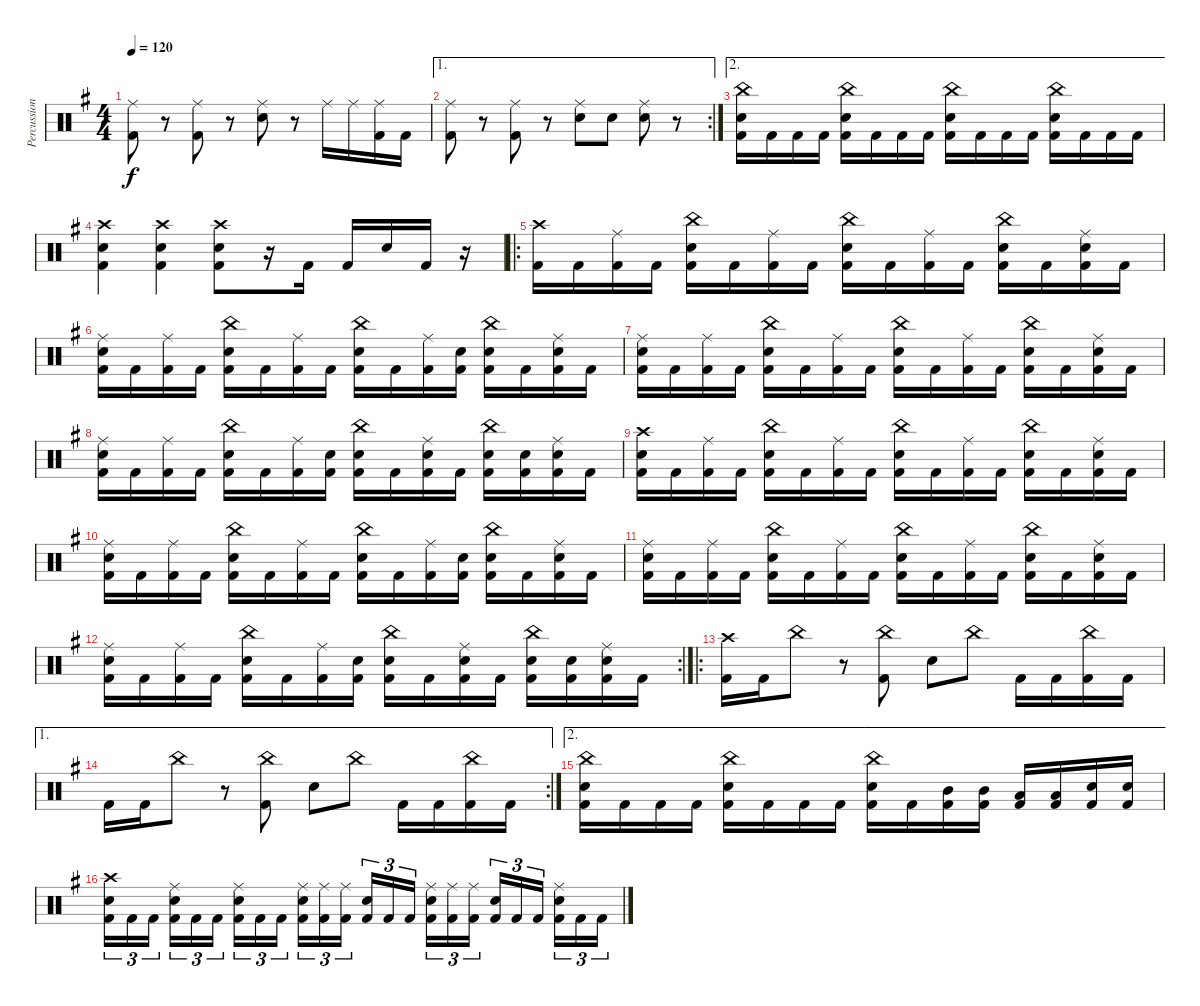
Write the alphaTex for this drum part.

\track ("Percussions" "Percussion") {instrument percussion}
\staff {score}
\articulation defaults
\ts (4 4)
\tempo 120
\clef neutral
\ks g
("Ride (middle)" "Kick (hit) 2").8{dy f} r.8 ("Ride (middle)" "Kick (hit) 2").8 r.8 ("Ride (middle)" "Snare (hit) 2").8 r.8 "Ride (middle)".16 "Ride (middle)".16 ("Ride (middle)" "Kick (hit) 2").16 "Kick (hit) 2".16 |
\ae 1
\rc 2
("Ride (middle)" "Kick (hit) 2").8 r.8 ("Ride (middle)" "Kick (hit) 2").8 r.8 ("Ride (middle)" "Snare (hit) 2").8 "Snare (hit) 2".8 ("Ride (middle)" "Snare (hit) 2").8 r.8 |
\ae 2
("China (hit)" "Snare (hit) 2" "Kick (hit) 2").16 "Kick (hit) 2".16 "Kick (hit) 2".16 "Kick (hit) 2".16 ("China (hit)" "Snare (hit) 2" "Kick (hit) 2").16 "Kick (hit) 2".16 "Kick (hit) 2".16 "Kick (hit) 2".16 ("China (hit)" "Snare (hit) 2" "Kick (hit) 2").16 "Kick (hit) 2".16 "Kick (hit) 2".16 "Kick (hit) 2".16 ("China (hit)" "Snare (hit) 2" "Kick (hit) 2").16 "Kick (hit) 2".16 "Kick (hit) 2".16 "Kick (hit) 2".16 |
("Crash high (hit)" "Snare (hit) 2" "Kick (hit) 2").4 ("Crash high (hit)" "Snare (hit) 2" "Kick (hit) 2").4 ("Crash high (hit)" "Snare (hit) 2" "Kick (hit) 2").8 r.16 "Kick (hit) 2".16 "Kick (hit) 2".16 "Snare (hit) 2".16 "Kick (hit) 2".16 r.16 |
\ro
("Crash high (hit)" "Kick (hit) 2").16 "Kick (hit) 2".16 ("Ride (middle)" "Kick (hit) 2").16 "Kick (hit) 2".16 ("China (hit)" "Snare (hit) 2" "Kick (hit) 2").16 "Kick (hit) 2".16 ("Ride (middle)" "Kick (hit) 2").16 "Kick (hit) 2".16 ("China (hit)" "Snare (hit) 2" "Kick (hit) 2").16 "Kick (hit) 2".16 ("Ride (middle)" "Kick (hit) 2").16 "Kick (hit) 2".16 ("China (hit)" "Snare (hit) 2" "Kick (hit) 2").16 "Kick (hit) 2".16 ("Ride (middle)" "Snare (hit) 2" "Kick (hit) 2").16 "Kick (hit) 2".16 |
("Ride (middle)" "Snare (hit) 2" "Kick (hit) 2").16 "Kick (hit) 2".16 ("Ride (middle)" "Kick (hit) 2").16 "Kick (hit) 2".16 ("China (hit)" "Snare (hit) 2" "Kick (hit) 2").16 "Kick (hit) 2".16 ("Ride (middle)" "Kick (hit) 2").16 "Kick (hit) 2".16 ("China (hit)" "Snare (hit) 2" "Kick (hit) 2").16 "Kick (hit) 2".16 ("Ride (middle)" "Kick (hit) 2").16 ("Snare (hit) 2" "Kick (hit) 2").16 ("China (hit)" "Snare (hit) 2" "Kick (hit) 2").16 "Kick (hit) 2".16 ("Ride (middle)" "Snare (hit) 2" "Kick (hit) 2").16 "Kick (hit) 2".16 |
("Ride (middle)" "Snare (hit) 2" "Kick (hit) 2").16 "Kick (hit) 2".16 ("Ride (middle)" "Kick (hit) 2").16 "Kick (hit) 2".16 ("China (hit)" "Snare (hit) 2" "Kick (hit) 2").16 "Kick (hit) 2".16 ("Ride (middle)" "Kick (hit) 2").16 "Kick (hit) 2".16 ("China (hit)" "Snare (hit) 2" "Kick (hit) 2").16 "Kick (hit) 2".16 ("Ride (middle)" "Kick (hit) 2").16 "Kick (hit) 2".16 ("China (hit)" "Snare (hit) 2" "Kick (hit) 2").16 "Kick (hit) 2".16 ("Ride (middle)" "Snare (hit) 2" "Kick (hit) 2").16 "Kick (hit) 2".16 |
("Ride (middle)" "Snare (hit) 2" "Kick (hit) 2").16 "Kick (hit) 2".16 ("Ride (middle)" "Kick (hit) 2").16 "Kick (hit) 2".16 ("China (hit)" "Snare (hit) 2" "Kick (hit) 2").16 "Kick (hit) 2".16 ("Ride (middle)" "Kick (hit) 2").16 ("Snare (hit) 2" "Kick (hit) 2").16 ("China (hit)" "Snare (hit) 2" "Kick (hit) 2").16 "Kick (hit) 2".16 ("Ride (middle)" "Snare (hit) 2" "Kick (hit) 2").16 "Kick (hit) 2".16 ("China (hit)" "Snare (hit) 2" "Kick (hit) 2").16 ("Snare (hit) 2" "Kick (hit) 2").16 ("Ride (middle)" "Snare (hit) 2" "Kick (hit) 2").16 "Kick (hit) 2".16 |
("Crash high (hit)" "Snare (hit) 2" "Kick (hit) 2").16 "Kick (hit) 2".16 ("Ride (middle)" "Kick (hit) 2").16 "Kick (hit) 2".16 ("China (hit)" "Snare (hit) 2" "Kick (hit) 2").16 "Kick (hit) 2".16 ("Ride (middle)" "Kick (hit) 2").16 "Kick (hit) 2".16 ("China (hit)" "Snare (hit) 2" "Kick (hit) 2").16 "Kick (hit) 2".16 ("Ride (middle)" "Kick (hit) 2").16 "Kick (hit) 2".16 ("China (hit)" "Snare (hit) 2" "Kick (hit) 2").16 "Kick (hit) 2".16 ("Ride (middle)" "Snare (hit) 2" "Kick (hit) 2").16 "Kick (hit) 2".16 |
("Ride (middle)" "Snare (hit) 2" "Kick (hit) 2").16 "Kick (hit) 2".16 ("Ride (middle)" "Kick (hit) 2").16 "Kick (hit) 2".16 ("China (hit)" "Snare (hit) 2" "Kick (hit) 2").16 "Kick (hit) 2".16 ("Ride (middle)" "Kick (hit) 2").16 "Kick (hit) 2".16 ("China (hit)" "Snare (hit) 2" "Kick (hit) 2").16 "Kick (hit) 2".16 ("Ride (middle)" "Kick (hit) 2").16 ("Snare (hit) 2" "Kick (hit) 2").16 ("China (hit)" "Snare (hit) 2" "Kick (hit) 2").16 "Kick (hit) 2".16 ("Ride (middle)" "Snare (hit) 2" "Kick (hit) 2").16 "Kick (hit) 2".16 |
("Ride (middle)" "Snare (hit) 2" "Kick (hit) 2").16 "Kick (hit) 2".16 ("Ride (middle)" "Kick (hit) 2").16 "Kick (hit) 2".16 ("China (hit)" "Snare (hit) 2" "Kick (hit) 2").16 "Kick (hit) 2".16 ("Ride (middle)" "Kick (hit) 2").16 "Kick (hit) 2".16 ("China (hit)" "Snare (hit) 2" "Kick (hit) 2").16 "Kick (hit) 2".16 ("Ride (middle)" "Kick (hit) 2").16 "Kick (hit) 2".16 ("China (hit)" "Snare (hit) 2" "Kick (hit) 2").16 "Kick (hit) 2".16 ("Ride (middle)" "Snare (hit) 2" "Kick (hit) 2").16 "Kick (hit) 2".16 |
\rc 2
("Ride (middle)" "Snare (hit) 2" "Kick (hit) 2").16 "Kick (hit) 2".16 ("Ride (middle)" "Kick (hit) 2").16 "Kick (hit) 2".16 ("China (hit)" "Snare (hit) 2" "Kick (hit) 2").16 "Kick (hit) 2".16 ("Ride (middle)" "Kick (hit) 2").16 ("Snare (hit) 2" "Kick (hit) 2").16 ("China (hit)" "Snare (hit) 2" "Kick (hit) 2").16 "Kick (hit) 2".16 ("Ride (middle)" "Snare (hit) 2" "Kick (hit) 2").16 "Kick (hit) 2".16 ("China (hit)" "Snare (hit) 2" "Kick (hit) 2").16 ("Snare (hit) 2" "Kick (hit) 2").16 ("Ride (middle)" "Snare (hit) 2" "Kick (hit) 2").16 "Kick (hit) 2".16 |
\ro
("Crash high (hit)" "Kick (hit) 2").16 "Kick (hit) 2".16 "China (hit)".8 r.8 ("China (hit)" "Kick (hit) 2").8 "Snare (hit) 2".8 "China (hit)".8 "Kick (hit) 2".16 "Kick (hit) 2".16 ("China (hit)" "Kick (hit) 2").16 "Kick (hit) 2".16 |
\ae 1
\rc 2 "Kick (hit) 2".16 "Kick (hit) 2".16 "China (hit)".8
r.8 ("China (hit)" "Kick (hit) 2").8 "Snare (hit) 2".8 "China (hit)".8 "Kick (hit) 2".16 "Kick (hit) 2".16 ("China (hit)" "Kick (hit) 2").16 "Kick (hit) 2".16 |
\ae 2
("China (hit)" "Snare (hit) 2" "Kick (hit) 2").16 "Kick (hit) 2".16 "Kick (hit) 2".16 "Kick (hit) 2".16 ("China (hit)" "Snare (hit) 2" "Kick (hit) 2").16 "Kick (hit) 2".16 "Kick (hit) 2".16 "Kick (hit) 2".16 ("China (hit)" "Snare (hit) 2" "Kick (hit) 2").16 "Kick (hit) 2".16 ("Mid Tom (hit)" "Kick (hit) 2").16 ("Mid Tom (hit)" "Kick (hit) 2").16 ("Low Tom (hit)" "Kick (hit) 2").16 ("Low Tom (hit)" "Kick (hit) 2").16 ("Snare (hit) 2" "Kick (hit) 2").16 ("Snare (hit) 2" "Kick (hit) 2").16 |
("Crash high (hit)" "Snare (hit) 2" "Kick (hit) 2").16{tu (3 2)} "Kick (hit) 2".16{tu (3 2)} "Kick (hit) 2".16{tu (3 2)} ("Ride (middle)" "Snare (hit) 2" "Kick (hit) 2").16{tu (3 2)} "Kick (hit) 2".16{tu (3 2)} "Kick (hit) 2".16{tu (3 2)} ("Ride (middle)" "Snare (hit) 2" "Kick (hit) 2").16{tu (3 2)} "Kick (hit) 2".16{tu (3 2)} "Kick (hit) 2".16{tu (3 2)} ("Ride (middle)" "Snare (hit) 2" "Kick (hit) 2").16{tu (3 2)} ("Ride (middle)" "Kick (hit) 2").16{tu (3 2)} ("Ride (middle)" "Kick (hit) 2").16{tu (3 2)} ("Snare (hit) 2" "Kick (hit) 2").16{tu (3 2)} "Kick (hit) 2".16{tu (3 2)} "Kick (hit) 2".16{tu (3 2)} ("Ride (middle)" "Snare (hit) 2" "Kick (hit) 2").16{tu (3 2)} ("Ride (middle)" "Kick (hit) 2").16{tu (3 2)} ("Ride (middle)" "Kick (hit) 2").16{tu (3 2)} ("Snare (hit) 2" "Kick (hit) 2").16{tu (3 2)} "Kick (hit) 2".16{tu (3 2)} "Kick (hit) 2".16{tu (3 2)} ("Ride (middle)" "Snare (hit) 2" "Kick (hit) 2").16{tu (3 2)} "Kick (hit) 2".16{tu (3 2)} "Kick (hit) 2".16{tu (3 2)}
